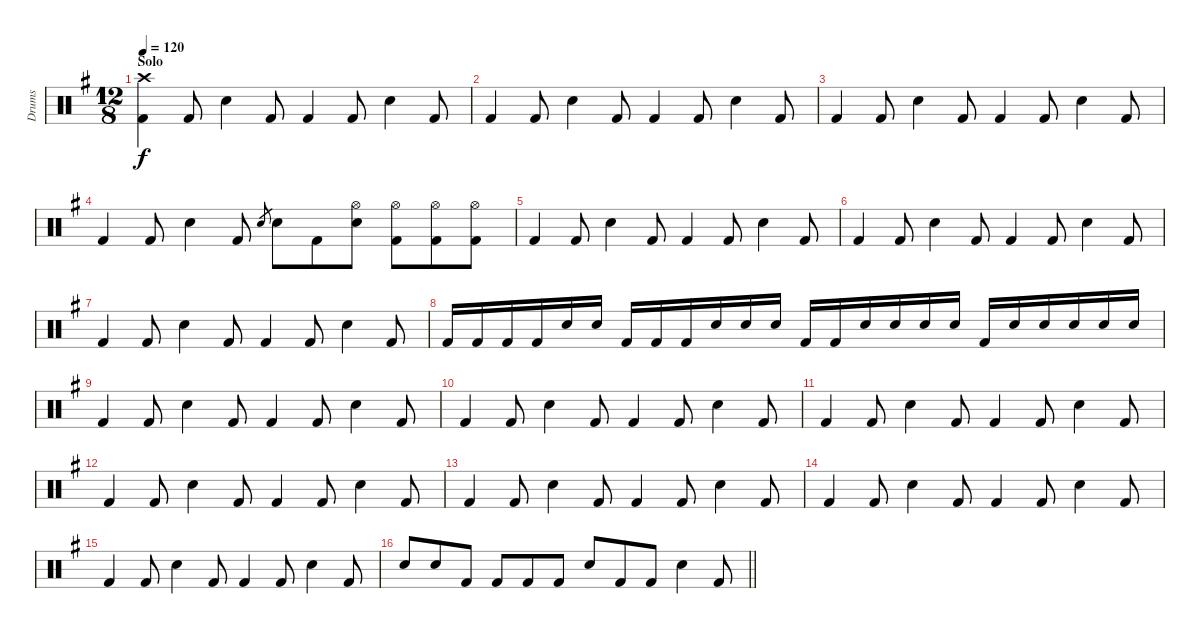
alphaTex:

\track ("Drums" "Drums") {instrument percussion}
\staff {score}
\articulation defaults
\ts (12 8)
\section ("" "Solo")
\tempo 120
\clef neutral
\ks eminor
("Kick (hit) 2" "Crash high (hit)").4{dy f} "Kick (hit) 2".8 "Snare (hit) 2".4 "Kick (hit) 2".8 "Kick (hit) 2".4 "Kick (hit) 2".8 "Snare (hit) 2".4 "Kick (hit) 2".8 |
"Kick (hit) 2".4 "Kick (hit) 2".8 "Snare (hit) 2".4 "Kick (hit) 2".8 "Kick (hit) 2".4 "Kick (hit) 2".8 "Snare (hit) 2".4 "Kick (hit) 2".8 |
"Kick (hit) 2".4 "Kick (hit) 2".8 "Snare (hit) 2".4 "Kick (hit) 2".8 "Kick (hit) 2".4 "Kick (hit) 2".8 "Snare (hit) 2".4 "Kick (hit) 2".8 |
"Kick (hit) 2".4 "Kick (hit) 2".8 "Snare (hit) 2".4 "Kick (hit) 2".8 "Snare (hit) 2".8{gr} "Snare (hit) 2".8 "Kick (hit) 2".8 ("Snare (hit) 2" "Hi-Hat (open)").8 ("Kick (hit) 2" "Hi-Hat (open)").8 ("Kick (hit) 2" "Hi-Hat (open)").8 ("Kick (hit) 2" "Hi-Hat (open)").8 |
"Kick (hit) 2".4 "Kick (hit) 2".8 "Snare (hit) 2".4 "Kick (hit) 2".8 "Kick (hit) 2".4 "Kick (hit) 2".8 "Snare (hit) 2".4 "Kick (hit) 2".8 |
"Kick (hit) 2".4 "Kick (hit) 2".8 "Snare (hit) 2".4 "Kick (hit) 2".8 "Kick (hit) 2".4 "Kick (hit) 2".8 "Snare (hit) 2".4 "Kick (hit) 2".8 |
"Kick (hit) 2".4 "Kick (hit) 2".8 "Snare (hit) 2".4 "Kick (hit) 2".8 "Kick (hit) 2".4 "Kick (hit) 2".8 "Snare (hit) 2".4 "Kick (hit) 2".8 |
"Kick (hit) 2".16 "Kick (hit) 2".16 "Kick (hit) 2".16 "Kick (hit) 2".16 "Snare (hit) 2".16 "Snare (hit) 2".16 "Kick (hit) 2".16 "Kick (hit) 2".16 "Kick (hit) 2".16 "Snare (hit) 2".16 "Snare (hit) 2".16 "Snare (hit) 2".16 "Kick (hit) 2".16 "Kick (hit) 2".16 "Snare (hit) 2".16 "Snare (hit) 2".16 "Snare (hit) 2".16 "Snare (hit) 2".16 "Kick (hit) 2".16 "Snare (hit) 2".16 "Snare (hit) 2".16 "Snare (hit) 2".16 "Snare (hit) 2".16 "Snare (hit) 2".16 |
"Kick (hit) 2".4 "Kick (hit) 2".8 "Snare (hit) 2".4 "Kick (hit) 2".8 "Kick (hit) 2".4 "Kick (hit) 2".8 "Snare (hit) 2".4 "Kick (hit) 2".8 |
"Kick (hit) 2".4 "Kick (hit) 2".8 "Snare (hit) 2".4 "Kick (hit) 2".8 "Kick (hit) 2".4 "Kick (hit) 2".8 "Snare (hit) 2".4 "Kick (hit) 2".8 |
"Kick (hit) 2".4 "Kick (hit) 2".8 "Snare (hit) 2".4 "Kick (hit) 2".8 "Kick (hit) 2".4 "Kick (hit) 2".8 "Snare (hit) 2".4 "Kick (hit) 2".8 |
"Kick (hit) 2".4 "Kick (hit) 2".8 "Snare (hit) 2".4 "Kick (hit) 2".8 "Kick (hit) 2".4 "Kick (hit) 2".8 "Snare (hit) 2".4 "Kick (hit) 2".8 |
"Kick (hit) 2".4 "Kick (hit) 2".8 "Snare (hit) 2".4 "Kick (hit) 2".8 "Kick (hit) 2".4 "Kick (hit) 2".8 "Snare (hit) 2".4 "Kick (hit) 2".8 |
"Kick (hit) 2".4 "Kick (hit) 2".8 "Snare (hit) 2".4 "Kick (hit) 2".8 "Kick (hit) 2".4 "Kick (hit) 2".8 "Snare (hit) 2".4 "Kick (hit) 2".8 |
"Kick (hit) 2".4 "Kick (hit) 2".8 "Snare (hit) 2".4 "Kick (hit) 2".8 "Kick (hit) 2".4 "Kick (hit) 2".8 "Snare (hit) 2".4 "Kick (hit) 2".8 |
\barLineRight lightlight "Snare (hit) 2".8 "Snare (hit) 2".8 "Kick (hit) 2".8 "Kick (hit) 2".8 "Kick (hit) 2".8 "Kick (hit) 2".8 "Snare (hit) 2".8 "Kick (hit) 2".8 "Kick (hit) 2".8 "Snare (hit) 2".4 "Kick (hit) 2".8
